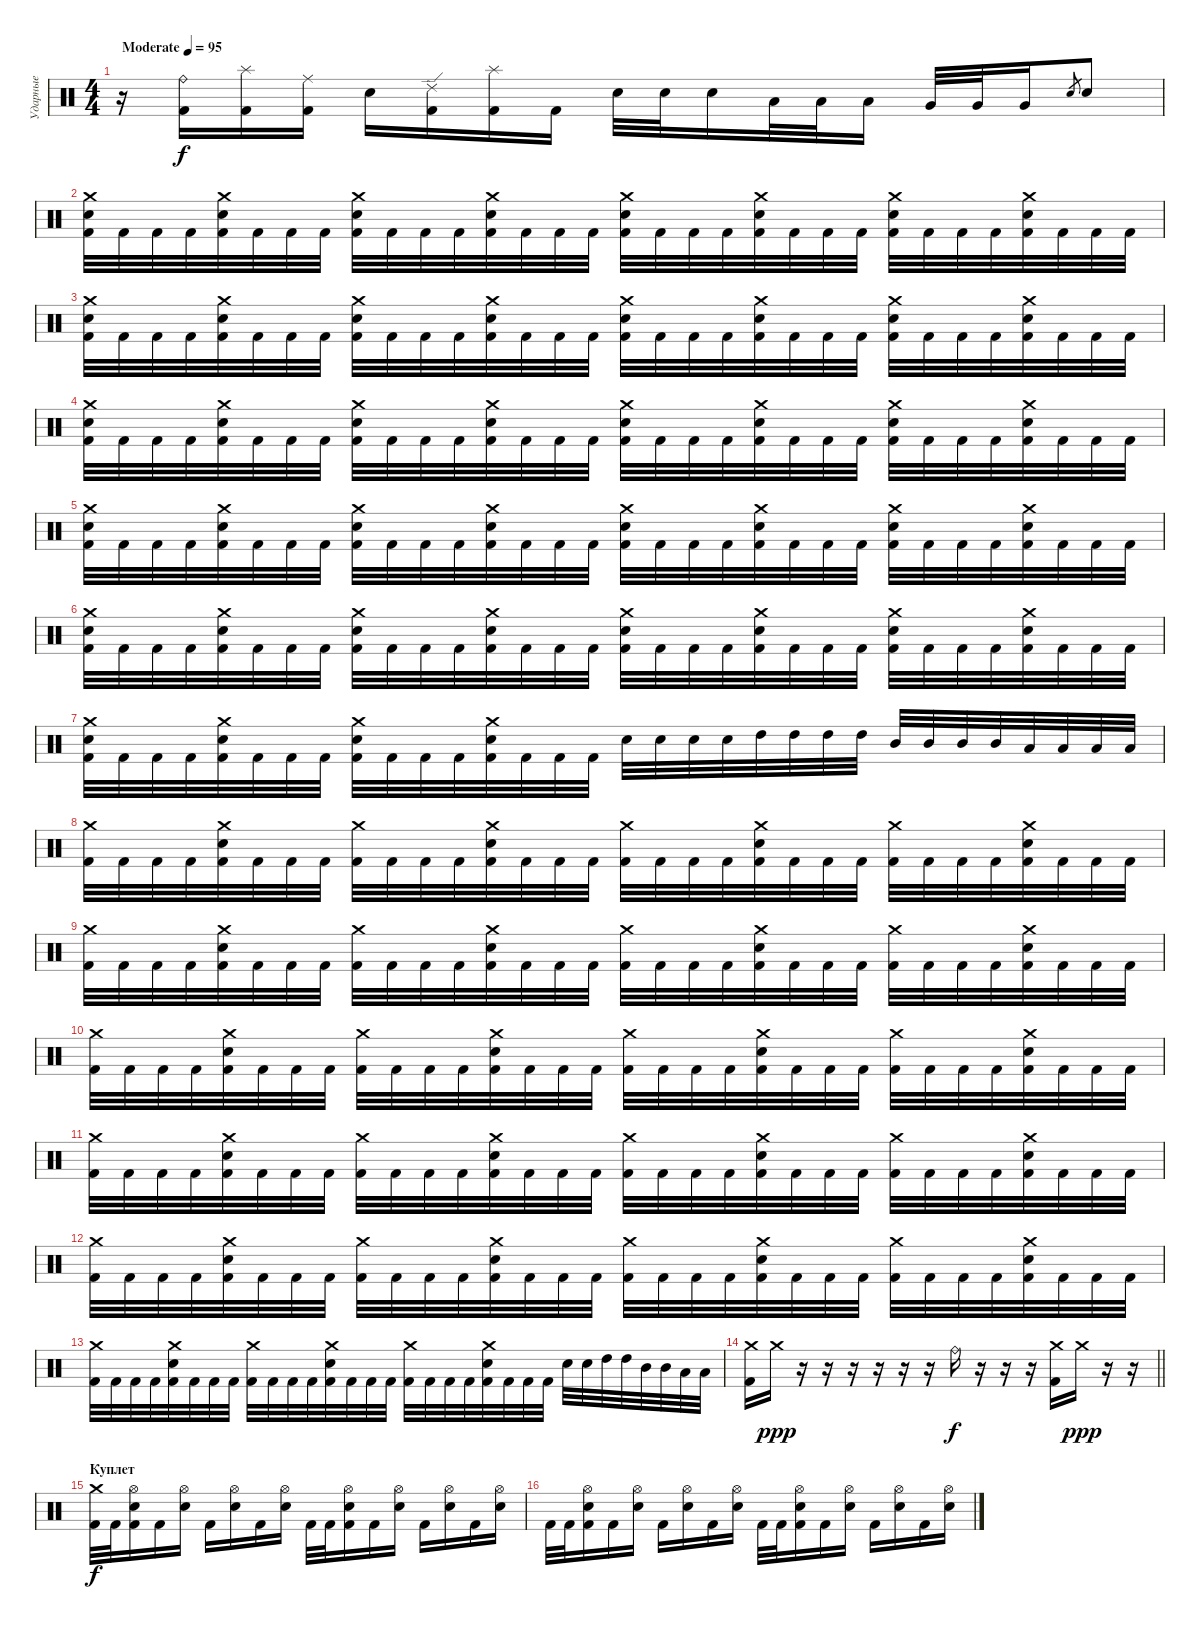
\track ("Ударные" "Ударные") {instrument percussion}
\staff {score}
\articulation defaults
\ts (4 4)
\tempo (95 "Moderate")
\clef neutral
\ks c
r.16{dy f} ("Ride (bell)" "Kick (hit) 2").16 ("Splash (hit)" "Kick (hit) 2").16 ("Ride (middle)" "Kick (hit) 2").16 "Electric Snare (hit)".16 ("Ride (edge) 2" "Kick (hit) 2").16 ("Splash (hit)" "Kick (hit) 2").16 "Kick (hit) 2".16 "Electric Snare (hit)".32 "Electric Snare (hit)".32 "Electric Snare (hit)".16 "Low Tom (hit)".32 "Low Tom (hit)".32 "Low Tom (hit)".16 "Very Low Tom (hit)".32 "Very Low Tom (hit)".32 "Very Low Tom (hit)".16 "Electric Snare (hit)".8{gr} "Electric Snare (hit)".8 |
("Crash medium (hit)" "Electric Snare (hit)" "Kick (hit) 2").32 "Kick (hit) 2".32 "Kick (hit) 2".32 "Kick (hit) 2".32 ("Crash medium (hit)" "Electric Snare (hit)" "Kick (hit) 2").32 "Kick (hit) 2".32 "Kick (hit) 2".32 "Kick (hit) 2".32 ("Crash medium (hit)" "Electric Snare (hit)" "Kick (hit) 2").32 "Kick (hit) 2".32 "Kick (hit) 2".32 "Kick (hit) 2".32 ("Crash medium (hit)" "Electric Snare (hit)" "Kick (hit) 2").32 "Kick (hit) 2".32 "Kick (hit) 2".32 "Kick (hit) 2".32 ("Crash medium (hit)" "Electric Snare (hit)" "Kick (hit) 2").32 "Kick (hit) 2".32 "Kick (hit) 2".32 "Kick (hit) 2".32 ("Crash medium (hit)" "Electric Snare (hit)" "Kick (hit) 2").32 "Kick (hit) 2".32 "Kick (hit) 2".32 "Kick (hit) 2".32 ("Crash medium (hit)" "Electric Snare (hit)" "Kick (hit) 2").32 "Kick (hit) 2".32 "Kick (hit) 2".32 "Kick (hit) 2".32 ("Crash medium (hit)" "Electric Snare (hit)" "Kick (hit) 2").32 "Kick (hit) 2".32 "Kick (hit) 2".32 "Kick (hit) 2".32 |
("Crash medium (hit)" "Electric Snare (hit)" "Kick (hit) 2").32 "Kick (hit) 2".32 "Kick (hit) 2".32 "Kick (hit) 2".32 ("Crash medium (hit)" "Electric Snare (hit)" "Kick (hit) 2").32 "Kick (hit) 2".32 "Kick (hit) 2".32 "Kick (hit) 2".32 ("Crash medium (hit)" "Electric Snare (hit)" "Kick (hit) 2").32 "Kick (hit) 2".32 "Kick (hit) 2".32 "Kick (hit) 2".32 ("Crash medium (hit)" "Electric Snare (hit)" "Kick (hit) 2").32 "Kick (hit) 2".32 "Kick (hit) 2".32 "Kick (hit) 2".32 ("Crash medium (hit)" "Electric Snare (hit)" "Kick (hit) 2").32 "Kick (hit) 2".32 "Kick (hit) 2".32 "Kick (hit) 2".32 ("Crash medium (hit)" "Electric Snare (hit)" "Kick (hit) 2").32 "Kick (hit) 2".32 "Kick (hit) 2".32 "Kick (hit) 2".32 ("Crash medium (hit)" "Electric Snare (hit)" "Kick (hit) 2").32 "Kick (hit) 2".32 "Kick (hit) 2".32 "Kick (hit) 2".32 ("Crash medium (hit)" "Electric Snare (hit)" "Kick (hit) 2").32 "Kick (hit) 2".32 "Kick (hit) 2".32 "Kick (hit) 2".32 |
("Crash medium (hit)" "Electric Snare (hit)" "Kick (hit) 2").32 "Kick (hit) 2".32 "Kick (hit) 2".32 "Kick (hit) 2".32 ("Crash medium (hit)" "Electric Snare (hit)" "Kick (hit) 2").32 "Kick (hit) 2".32 "Kick (hit) 2".32 "Kick (hit) 2".32 ("Crash medium (hit)" "Electric Snare (hit)" "Kick (hit) 2").32 "Kick (hit) 2".32 "Kick (hit) 2".32 "Kick (hit) 2".32 ("Crash medium (hit)" "Electric Snare (hit)" "Kick (hit) 2").32 "Kick (hit) 2".32 "Kick (hit) 2".32 "Kick (hit) 2".32 ("Crash medium (hit)" "Electric Snare (hit)" "Kick (hit) 2").32 "Kick (hit) 2".32 "Kick (hit) 2".32 "Kick (hit) 2".32 ("Crash medium (hit)" "Electric Snare (hit)" "Kick (hit) 2").32 "Kick (hit) 2".32 "Kick (hit) 2".32 "Kick (hit) 2".32 ("Crash medium (hit)" "Electric Snare (hit)" "Kick (hit) 2").32 "Kick (hit) 2".32 "Kick (hit) 2".32 "Kick (hit) 2".32 ("Crash medium (hit)" "Electric Snare (hit)" "Kick (hit) 2").32 "Kick (hit) 2".32 "Kick (hit) 2".32 "Kick (hit) 2".32 |
("Crash medium (hit)" "Electric Snare (hit)" "Kick (hit) 2").32 "Kick (hit) 2".32 "Kick (hit) 2".32 "Kick (hit) 2".32 ("Crash medium (hit)" "Electric Snare (hit)" "Kick (hit) 2").32 "Kick (hit) 2".32 "Kick (hit) 2".32 "Kick (hit) 2".32 ("Crash medium (hit)" "Electric Snare (hit)" "Kick (hit) 2").32 "Kick (hit) 2".32 "Kick (hit) 2".32 "Kick (hit) 2".32 ("Crash medium (hit)" "Electric Snare (hit)" "Kick (hit) 2").32 "Kick (hit) 2".32 "Kick (hit) 2".32 "Kick (hit) 2".32 ("Crash medium (hit)" "Electric Snare (hit)" "Kick (hit) 2").32 "Kick (hit) 2".32 "Kick (hit) 2".32 "Kick (hit) 2".32 ("Crash medium (hit)" "Electric Snare (hit)" "Kick (hit) 2").32 "Kick (hit) 2".32 "Kick (hit) 2".32 "Kick (hit) 2".32 ("Crash medium (hit)" "Electric Snare (hit)" "Kick (hit) 2").32 "Kick (hit) 2".32 "Kick (hit) 2".32 "Kick (hit) 2".32 ("Crash medium (hit)" "Electric Snare (hit)" "Kick (hit) 2").32 "Kick (hit) 2".32 "Kick (hit) 2".32 "Kick (hit) 2".32 |
("Crash medium (hit)" "Electric Snare (hit)" "Kick (hit) 2").32 "Kick (hit) 2".32 "Kick (hit) 2".32 "Kick (hit) 2".32 ("Crash medium (hit)" "Electric Snare (hit)" "Kick (hit) 2").32 "Kick (hit) 2".32 "Kick (hit) 2".32 "Kick (hit) 2".32 ("Crash medium (hit)" "Electric Snare (hit)" "Kick (hit) 2").32 "Kick (hit) 2".32 "Kick (hit) 2".32 "Kick (hit) 2".32 ("Crash medium (hit)" "Electric Snare (hit)" "Kick (hit) 2").32 "Kick (hit) 2".32 "Kick (hit) 2".32 "Kick (hit) 2".32 ("Crash medium (hit)" "Electric Snare (hit)" "Kick (hit) 2").32 "Kick (hit) 2".32 "Kick (hit) 2".32 "Kick (hit) 2".32 ("Crash medium (hit)" "Electric Snare (hit)" "Kick (hit) 2").32 "Kick (hit) 2".32 "Kick (hit) 2".32 "Kick (hit) 2".32 ("Crash medium (hit)" "Electric Snare (hit)" "Kick (hit) 2").32 "Kick (hit) 2".32 "Kick (hit) 2".32 "Kick (hit) 2".32 ("Crash medium (hit)" "Electric Snare (hit)" "Kick (hit) 2").32 "Kick (hit) 2".32 "Kick (hit) 2".32 "Kick (hit) 2".32 |
("Crash medium (hit)" "Electric Snare (hit)" "Kick (hit) 2").32 "Kick (hit) 2".32 "Kick (hit) 2".32 "Kick (hit) 2".32 ("Crash medium (hit)" "Electric Snare (hit)" "Kick (hit) 2").32 "Kick (hit) 2".32 "Kick (hit) 2".32 "Kick (hit) 2".32 ("Crash medium (hit)" "Electric Snare (hit)" "Kick (hit) 2").32 "Kick (hit) 2".32 "Kick (hit) 2".32 "Kick (hit) 2".32 ("Crash medium (hit)" "Electric Snare (hit)" "Kick (hit) 2").32 "Kick (hit) 2".32 "Kick (hit) 2".32 "Kick (hit) 2".32 "Electric Snare (hit)".32 "Electric Snare (hit)".32 "Electric Snare (hit)".32 "Electric Snare (hit)".32 "High Tom (hit)".32 "High Tom (hit)".32 "High Tom (hit)".32 "High Tom (hit)".32 "Mid Tom (hit)".32 "Mid Tom (hit)".32 "Mid Tom (hit)".32 "Mid Tom (hit)".32 "Low Tom (hit)".32 "Low Tom (hit)".32 "Low Tom (hit)".32 "Low Tom (hit)".32 |
("Crash medium (hit)" "Kick (hit) 2").32 "Kick (hit) 2".32 "Kick (hit) 2".32 "Kick (hit) 2".32 ("Crash medium (hit)" "Electric Snare (hit)" "Kick (hit) 2").32 "Kick (hit) 2".32 "Kick (hit) 2".32 "Kick (hit) 2".32 ("Crash medium (hit)" "Kick (hit) 2").32 "Kick (hit) 2".32 "Kick (hit) 2".32 "Kick (hit) 2".32 ("Crash medium (hit)" "Electric Snare (hit)" "Kick (hit) 2").32 "Kick (hit) 2".32 "Kick (hit) 2".32 "Kick (hit) 2".32 ("Crash medium (hit)" "Kick (hit) 2").32 "Kick (hit) 2".32 "Kick (hit) 2".32 "Kick (hit) 2".32 ("Crash medium (hit)" "Electric Snare (hit)" "Kick (hit) 2").32 "Kick (hit) 2".32 "Kick (hit) 2".32 "Kick (hit) 2".32 ("Crash medium (hit)" "Kick (hit) 2").32 "Kick (hit) 2".32 "Kick (hit) 2".32 "Kick (hit) 2".32 ("Crash medium (hit)" "Electric Snare (hit)" "Kick (hit) 2").32 "Kick (hit) 2".32 "Kick (hit) 2".32 "Kick (hit) 2".32 |
("Crash medium (hit)" "Kick (hit) 2").32 "Kick (hit) 2".32 "Kick (hit) 2".32 "Kick (hit) 2".32 ("Crash medium (hit)" "Electric Snare (hit)" "Kick (hit) 2").32 "Kick (hit) 2".32 "Kick (hit) 2".32 "Kick (hit) 2".32 ("Crash medium (hit)" "Kick (hit) 2").32 "Kick (hit) 2".32 "Kick (hit) 2".32 "Kick (hit) 2".32 ("Crash medium (hit)" "Electric Snare (hit)" "Kick (hit) 2").32 "Kick (hit) 2".32 "Kick (hit) 2".32 "Kick (hit) 2".32 ("Crash medium (hit)" "Kick (hit) 2").32 "Kick (hit) 2".32 "Kick (hit) 2".32 "Kick (hit) 2".32 ("Crash medium (hit)" "Electric Snare (hit)" "Kick (hit) 2").32 "Kick (hit) 2".32 "Kick (hit) 2".32 "Kick (hit) 2".32 ("Crash medium (hit)" "Kick (hit) 2").32 "Kick (hit) 2".32 "Kick (hit) 2".32 "Kick (hit) 2".32 ("Crash medium (hit)" "Electric Snare (hit)" "Kick (hit) 2").32 "Kick (hit) 2".32 "Kick (hit) 2".32 "Kick (hit) 2".32 |
("Crash medium (hit)" "Kick (hit) 2").32 "Kick (hit) 2".32 "Kick (hit) 2".32 "Kick (hit) 2".32 ("Crash medium (hit)" "Electric Snare (hit)" "Kick (hit) 2").32 "Kick (hit) 2".32 "Kick (hit) 2".32 "Kick (hit) 2".32 ("Crash medium (hit)" "Kick (hit) 2").32 "Kick (hit) 2".32 "Kick (hit) 2".32 "Kick (hit) 2".32 ("Crash medium (hit)" "Electric Snare (hit)" "Kick (hit) 2").32 "Kick (hit) 2".32 "Kick (hit) 2".32 "Kick (hit) 2".32 ("Crash medium (hit)" "Kick (hit) 2").32 "Kick (hit) 2".32 "Kick (hit) 2".32 "Kick (hit) 2".32 ("Crash medium (hit)" "Electric Snare (hit)" "Kick (hit) 2").32 "Kick (hit) 2".32 "Kick (hit) 2".32 "Kick (hit) 2".32 ("Crash medium (hit)" "Kick (hit) 2").32 "Kick (hit) 2".32 "Kick (hit) 2".32 "Kick (hit) 2".32 ("Crash medium (hit)" "Electric Snare (hit)" "Kick (hit) 2").32 "Kick (hit) 2".32 "Kick (hit) 2".32 "Kick (hit) 2".32 |
("Crash medium (hit)" "Kick (hit) 2").32 "Kick (hit) 2".32 "Kick (hit) 2".32 "Kick (hit) 2".32 ("Crash medium (hit)" "Electric Snare (hit)" "Kick (hit) 2").32 "Kick (hit) 2".32 "Kick (hit) 2".32 "Kick (hit) 2".32 ("Crash medium (hit)" "Kick (hit) 2").32 "Kick (hit) 2".32 "Kick (hit) 2".32 "Kick (hit) 2".32 ("Crash medium (hit)" "Electric Snare (hit)" "Kick (hit) 2").32 "Kick (hit) 2".32 "Kick (hit) 2".32 "Kick (hit) 2".32 ("Crash medium (hit)" "Kick (hit) 2").32 "Kick (hit) 2".32 "Kick (hit) 2".32 "Kick (hit) 2".32 ("Crash medium (hit)" "Electric Snare (hit)" "Kick (hit) 2").32 "Kick (hit) 2".32 "Kick (hit) 2".32 "Kick (hit) 2".32 ("Crash medium (hit)" "Kick (hit) 2").32 "Kick (hit) 2".32 "Kick (hit) 2".32 "Kick (hit) 2".32 ("Crash medium (hit)" "Electric Snare (hit)" "Kick (hit) 2").32 "Kick (hit) 2".32 "Kick (hit) 2".32 "Kick (hit) 2".32 |
("Crash medium (hit)" "Kick (hit) 2").32 "Kick (hit) 2".32 "Kick (hit) 2".32 "Kick (hit) 2".32 ("Crash medium (hit)" "Electric Snare (hit)" "Kick (hit) 2").32 "Kick (hit) 2".32 "Kick (hit) 2".32 "Kick (hit) 2".32 ("Crash medium (hit)" "Kick (hit) 2").32 "Kick (hit) 2".32 "Kick (hit) 2".32 "Kick (hit) 2".32 ("Crash medium (hit)" "Electric Snare (hit)" "Kick (hit) 2").32 "Kick (hit) 2".32 "Kick (hit) 2".32 "Kick (hit) 2".32 ("Crash medium (hit)" "Kick (hit) 2").32 "Kick (hit) 2".32 "Kick (hit) 2".32 "Kick (hit) 2".32 ("Crash medium (hit)" "Electric Snare (hit)" "Kick (hit) 2").32 "Kick (hit) 2".32 "Kick (hit) 2".32 "Kick (hit) 2".32 ("Crash medium (hit)" "Kick (hit) 2").32 "Kick (hit) 2".32 "Kick (hit) 2".32 "Kick (hit) 2".32 ("Crash medium (hit)" "Electric Snare (hit)" "Kick (hit) 2").32 "Kick (hit) 2".32 "Kick (hit) 2".32 "Kick (hit) 2".32 |
("Crash medium (hit)" "Kick (hit) 2").32 "Kick (hit) 2".32 "Kick (hit) 2".32 "Kick (hit) 2".32 ("Crash medium (hit)" "Electric Snare (hit)" "Kick (hit) 2").32 "Kick (hit) 2".32 "Kick (hit) 2".32 "Kick (hit) 2".32 ("Crash medium (hit)" "Kick (hit) 2").32 "Kick (hit) 2".32 "Kick (hit) 2".32 "Kick (hit) 2".32 ("Crash medium (hit)" "Electric Snare (hit)" "Kick (hit) 2").32 "Kick (hit) 2".32 "Kick (hit) 2".32 "Kick (hit) 2".32 ("Crash medium (hit)" "Kick (hit) 2").32 "Kick (hit) 2".32 "Kick (hit) 2".32 "Kick (hit) 2".32 ("Crash medium (hit)" "Electric Snare (hit)" "Kick (hit) 2").32 "Kick (hit) 2".32 "Kick (hit) 2".32 "Kick (hit) 2".32 "Electric Snare (hit)".32 "Electric Snare (hit)".32 "High Tom (hit)".32 "High Tom (hit)".32 "Mid Tom (hit)".32 "Mid Tom (hit)".32 "Low Tom (hit)".32 "Low Tom (hit)".32 |
\barLineRight lightlight
("Crash medium (hit)" "Kick (hit) 2").16 "Crash medium (hit)".16{dy ppp} r.16 r.16 r.16 r.16 r.16 r.16 "Ride (bell)".16{dy f} r.16 r.16 r.16 ("Crash medium (hit)" "Kick (hit) 2").16 "Crash medium (hit)".16{dy ppp} r.16 r.16 |
\section ("" "Куплет")
("Crash medium (hit)" "Kick (hit) 2").32{dy f} "Kick (hit) 2".32 ("Hi-Hat (open)" "Electric Snare (hit)" "Kick (hit) 2").16 "Kick (hit) 2".16 ("Hi-Hat (open)" "Electric Snare (hit)").16 "Kick (hit) 2".16 ("Hi-Hat (open)" "Electric Snare (hit)").16 "Kick (hit) 2".16 ("Hi-Hat (open)" "Electric Snare (hit)").16 "Kick (hit) 2".32 "Kick (hit) 2".32 ("Hi-Hat (open)" "Electric Snare (hit)" "Kick (hit) 2").16 "Kick (hit) 2".16 ("Hi-Hat (open)" "Electric Snare (hit)").16 "Kick (hit) 2".16 ("Hi-Hat (open)" "Electric Snare (hit)").16 "Kick (hit) 2".16 ("Hi-Hat (open)" "Electric Snare (hit)").16 |
"Kick (hit) 2".32 "Kick (hit) 2".32 ("Hi-Hat (open)" "Electric Snare (hit)" "Kick (hit) 2").16 "Kick (hit) 2".16 ("Hi-Hat (open)" "Electric Snare (hit)").16 "Kick (hit) 2".16 ("Hi-Hat (open)" "Electric Snare (hit)").16 "Kick (hit) 2".16 ("Hi-Hat (open)" "Electric Snare (hit)").16 "Kick (hit) 2".32 "Kick (hit) 2".32 ("Hi-Hat (open)" "Electric Snare (hit)" "Kick (hit) 2").16 "Kick (hit) 2".16 ("Hi-Hat (open)" "Electric Snare (hit)").16 "Kick (hit) 2".16 ("Hi-Hat (open)" "Electric Snare (hit)").16 "Kick (hit) 2".16 ("Hi-Hat (open)" "Electric Snare (hit)").16
